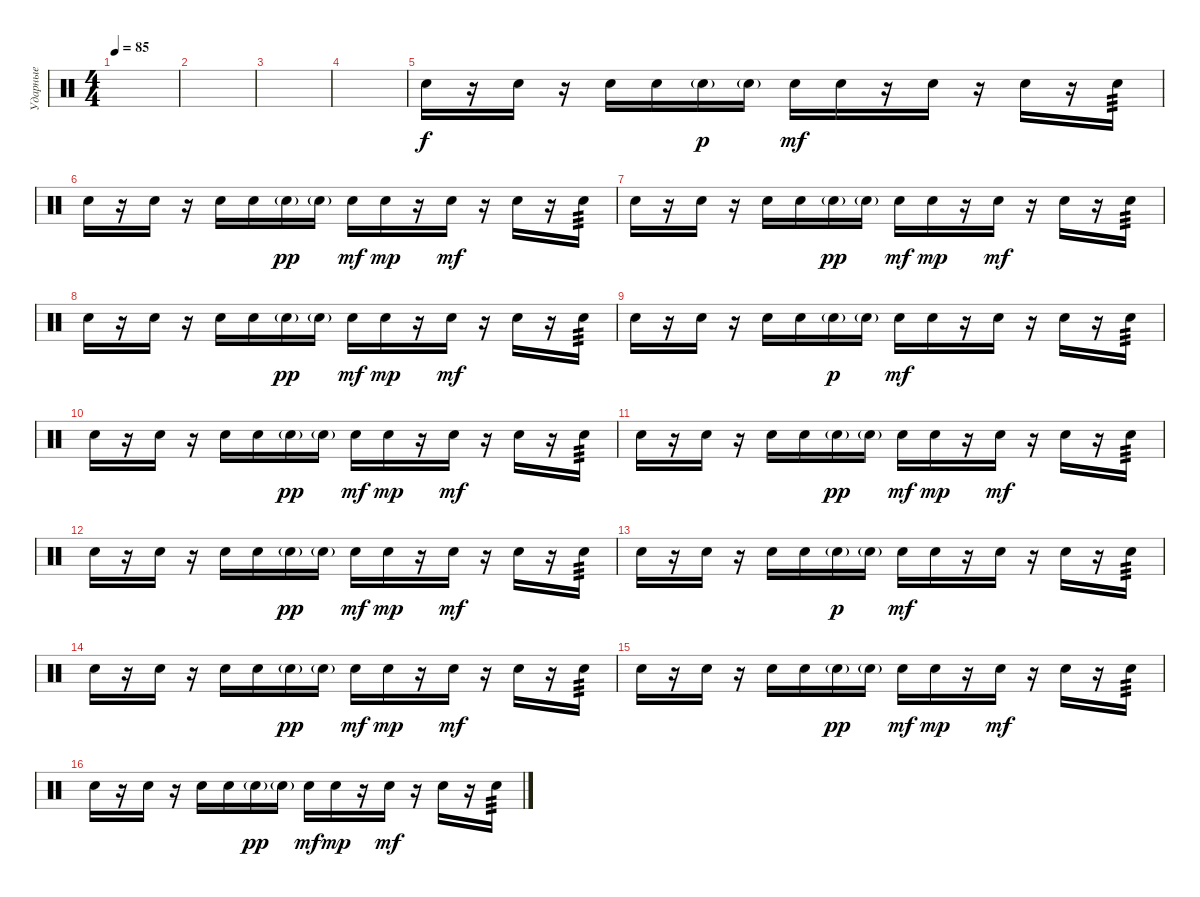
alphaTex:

\track ("Ударные" "Ударные") {instrument percussion}
\staff {score}
\articulation defaults
\ts (4 4)
\tempo 85
\clef neutral
\ks c
|
|
|
|
"Hand Clap (hit)".16 r.16 "Hand Clap (hit)".16 r.16 "Hand Clap (hit)".16 "Hand Clap (hit)".16 "Hand Clap (hit)"{g}.16{dy p} "Hand Clap (hit)"{g}.16 "Hand Clap (hit)".16{dy mf} "Hand Clap (hit)".16 r.16 "Hand Clap (hit)".16 r.16 "Hand Clap (hit)".16 r.16 "Hand Clap (hit)".16{tp 3} |
"Hand Clap (hit)".16 r.16 "Hand Clap (hit)".16 r.16 "Hand Clap (hit)".16 "Hand Clap (hit)".16 "Hand Clap (hit)"{g}.16{dy pp} "Hand Clap (hit)"{g}.16 "Hand Clap (hit)".16{dy mf} "Hand Clap (hit)".16{dy mp} r.16 "Hand Clap (hit)".16{dy mf} r.16 "Hand Clap (hit)".16 r.16 "Hand Clap (hit)".16{tp 3} |
"Hand Clap (hit)".16 r.16 "Hand Clap (hit)".16 r.16 "Hand Clap (hit)".16 "Hand Clap (hit)".16 "Hand Clap (hit)"{g}.16{dy pp} "Hand Clap (hit)"{g}.16 "Hand Clap (hit)".16{dy mf} "Hand Clap (hit)".16{dy mp} r.16 "Hand Clap (hit)".16{dy mf} r.16 "Hand Clap (hit)".16 r.16 "Hand Clap (hit)".16{tp 3} |
"Hand Clap (hit)".16 r.16 "Hand Clap (hit)".16 r.16 "Hand Clap (hit)".16 "Hand Clap (hit)".16 "Hand Clap (hit)"{g}.16{dy pp} "Hand Clap (hit)"{g}.16 "Hand Clap (hit)".16{dy mf} "Hand Clap (hit)".16{dy mp} r.16 "Hand Clap (hit)".16{dy mf} r.16 "Hand Clap (hit)".16 r.16 "Hand Clap (hit)".16{tp 3} |
"Hand Clap (hit)".16 r.16 "Hand Clap (hit)".16 r.16 "Hand Clap (hit)".16 "Hand Clap (hit)".16 "Hand Clap (hit)"{g}.16{dy p} "Hand Clap (hit)"{g}.16 "Hand Clap (hit)".16{dy mf} "Hand Clap (hit)".16 r.16 "Hand Clap (hit)".16 r.16 "Hand Clap (hit)".16 r.16 "Hand Clap (hit)".16{tp 3} |
"Hand Clap (hit)".16 r.16 "Hand Clap (hit)".16 r.16 "Hand Clap (hit)".16 "Hand Clap (hit)".16 "Hand Clap (hit)"{g}.16{dy pp} "Hand Clap (hit)"{g}.16 "Hand Clap (hit)".16{dy mf} "Hand Clap (hit)".16{dy mp} r.16 "Hand Clap (hit)".16{dy mf} r.16 "Hand Clap (hit)".16 r.16 "Hand Clap (hit)".16{tp 3} |
"Hand Clap (hit)".16 r.16 "Hand Clap (hit)".16 r.16 "Hand Clap (hit)".16 "Hand Clap (hit)".16 "Hand Clap (hit)"{g}.16{dy pp} "Hand Clap (hit)"{g}.16 "Hand Clap (hit)".16{dy mf} "Hand Clap (hit)".16{dy mp} r.16 "Hand Clap (hit)".16{dy mf} r.16 "Hand Clap (hit)".16 r.16 "Hand Clap (hit)".16{tp 3} |
"Hand Clap (hit)".16 r.16 "Hand Clap (hit)".16 r.16 "Hand Clap (hit)".16 "Hand Clap (hit)".16 "Hand Clap (hit)"{g}.16{dy pp} "Hand Clap (hit)"{g}.16 "Hand Clap (hit)".16{dy mf} "Hand Clap (hit)".16{dy mp} r.16 "Hand Clap (hit)".16{dy mf} r.16 "Hand Clap (hit)".16 r.16 "Hand Clap (hit)".16{tp 3} |
"Hand Clap (hit)".16 r.16 "Hand Clap (hit)".16 r.16 "Hand Clap (hit)".16 "Hand Clap (hit)".16 "Hand Clap (hit)"{g}.16{dy p} "Hand Clap (hit)"{g}.16 "Hand Clap (hit)".16{dy mf} "Hand Clap (hit)".16 r.16 "Hand Clap (hit)".16 r.16 "Hand Clap (hit)".16 r.16 "Hand Clap (hit)".16{tp 3} |
"Hand Clap (hit)".16 r.16 "Hand Clap (hit)".16 r.16 "Hand Clap (hit)".16 "Hand Clap (hit)".16 "Hand Clap (hit)"{g}.16{dy pp} "Hand Clap (hit)"{g}.16 "Hand Clap (hit)".16{dy mf} "Hand Clap (hit)".16{dy mp} r.16 "Hand Clap (hit)".16{dy mf} r.16 "Hand Clap (hit)".16 r.16 "Hand Clap (hit)".16{tp 3} |
"Hand Clap (hit)".16 r.16 "Hand Clap (hit)".16 r.16 "Hand Clap (hit)".16 "Hand Clap (hit)".16 "Hand Clap (hit)"{g}.16{dy pp} "Hand Clap (hit)"{g}.16 "Hand Clap (hit)".16{dy mf} "Hand Clap (hit)".16{dy mp} r.16 "Hand Clap (hit)".16{dy mf} r.16 "Hand Clap (hit)".16 r.16 "Hand Clap (hit)".16{tp 3} |
"Hand Clap (hit)".16 r.16 "Hand Clap (hit)".16 r.16 "Hand Clap (hit)".16 "Hand Clap (hit)".16 "Hand Clap (hit)"{g}.16{dy pp} "Hand Clap (hit)"{g}.16 "Hand Clap (hit)".16{dy mf} "Hand Clap (hit)".16{dy mp} r.16 "Hand Clap (hit)".16{dy mf} r.16 "Hand Clap (hit)".16 r.16 "Hand Clap (hit)".16{tp 3}
